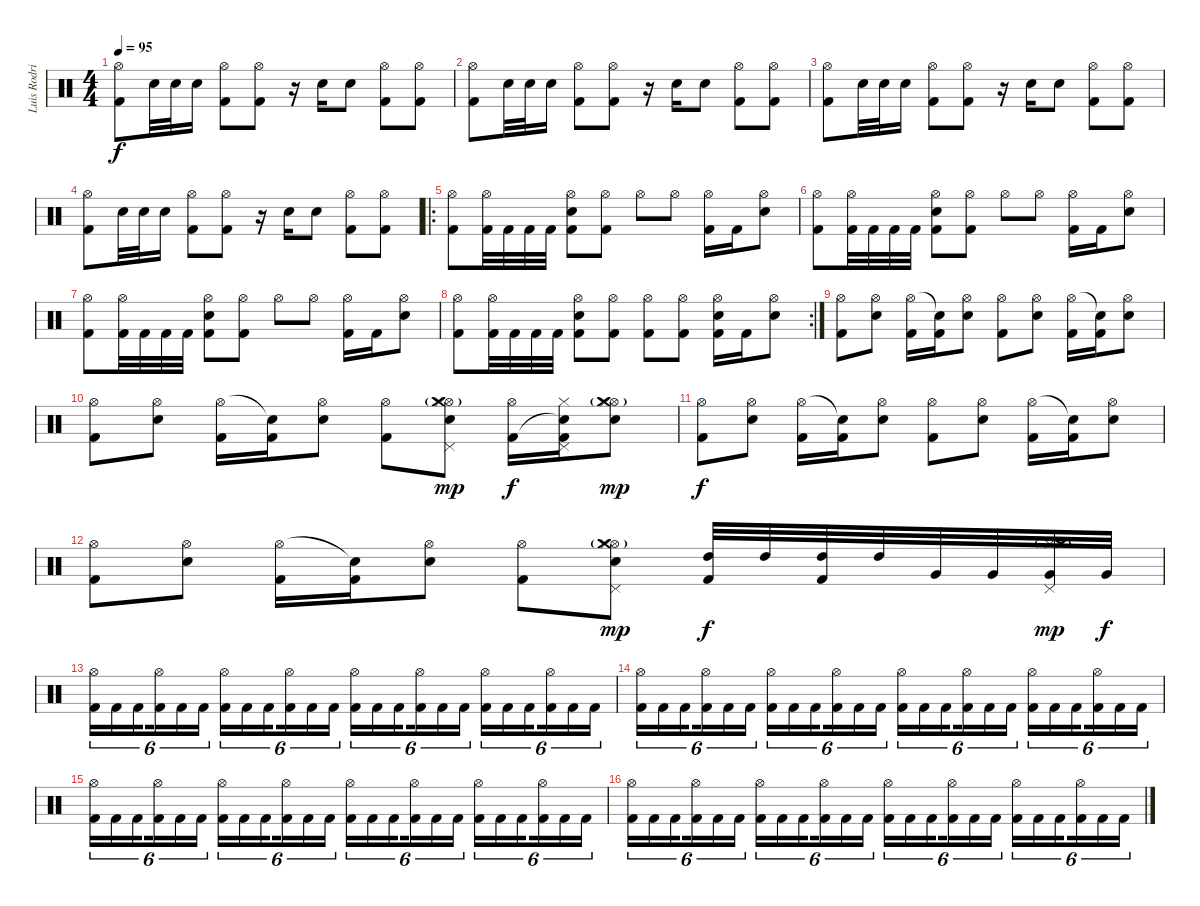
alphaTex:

\track ("Luis Rodriguez" "Luis Rodri") {instrument percussion}
\staff {score}
\articulation defaults
\ts (4 4)
\tempo 95
\clef neutral
\ks c
("Hi-Hat (open)" "Kick (hit) 2").8{dy f} "Snare (hit) 2".32 "Snare (hit) 2".32 "Snare (hit) 2".16 ("Hi-Hat (open)" "Kick (hit) 2").8 ("Hi-Hat (open)" "Kick (hit) 2").8 r.16 "Snare (hit) 2".16 "Snare (hit) 2".8 ("Hi-Hat (open)" "Kick (hit) 2").8 ("Hi-Hat (open)" "Kick (hit) 2").8 |
("Hi-Hat (open)" "Kick (hit) 2").8 "Snare (hit) 2".32 "Snare (hit) 2".32 "Snare (hit) 2".16 ("Hi-Hat (open)" "Kick (hit) 2").8 ("Hi-Hat (open)" "Kick (hit) 2").8 r.16 "Snare (hit) 2".16 "Snare (hit) 2".8 ("Hi-Hat (open)" "Kick (hit) 2").8 ("Hi-Hat (open)" "Kick (hit) 2").8 |
("Hi-Hat (open)" "Kick (hit) 2").8 "Snare (hit) 2".32 "Snare (hit) 2".32 "Snare (hit) 2".16 ("Hi-Hat (open)" "Kick (hit) 2").8 ("Hi-Hat (open)" "Kick (hit) 2").8 r.16 "Snare (hit) 2".16 "Snare (hit) 2".8 ("Hi-Hat (open)" "Kick (hit) 2").8 ("Hi-Hat (open)" "Kick (hit) 2").8 |
("Hi-Hat (open)" "Kick (hit) 2").8 "Snare (hit) 2".32 "Snare (hit) 2".32 "Snare (hit) 2".16 ("Hi-Hat (open)" "Kick (hit) 2").8 ("Hi-Hat (open)" "Kick (hit) 2").8 r.16 "Snare (hit) 2".16 "Snare (hit) 2".8 ("Hi-Hat (open)" "Kick (hit) 2").8 ("Hi-Hat (open)" "Kick (hit) 2").8 |
\ro
("Hi-Hat (open)" "Kick (hit) 2").8 ("Hi-Hat (open)" "Kick (hit) 2").32 "Kick (hit) 2".32 "Kick (hit) 2".32 "Kick (hit) 2".32 ("Hi-Hat (open)" "Snare (hit) 2" "Kick (hit) 2").8 ("Hi-Hat (open)" "Kick (hit) 2").8 "Hi-Hat (open)".8 "Hi-Hat (open)".8 ("Hi-Hat (open)" "Kick (hit) 2").16 "Kick (hit) 2".16 ("Hi-Hat (open)" "Snare (hit) 2").8 |
("Hi-Hat (open)" "Kick (hit) 2").8 ("Hi-Hat (open)" "Kick (hit) 2").32 "Kick (hit) 2".32 "Kick (hit) 2".32 "Kick (hit) 2".32 ("Hi-Hat (open)" "Snare (hit) 2" "Kick (hit) 2").8 ("Hi-Hat (open)" "Kick (hit) 2").8 "Hi-Hat (open)".8 "Hi-Hat (open)".8 ("Hi-Hat (open)" "Kick (hit) 2").16 "Kick (hit) 2".16 ("Hi-Hat (open)" "Snare (hit) 2").8 |
("Hi-Hat (open)" "Kick (hit) 2").8 ("Hi-Hat (open)" "Kick (hit) 2").32 "Kick (hit) 2".32 "Kick (hit) 2".32 "Kick (hit) 2".32 ("Hi-Hat (open)" "Snare (hit) 2" "Kick (hit) 2").8 ("Hi-Hat (open)" "Kick (hit) 2").8 "Hi-Hat (open)".8 "Hi-Hat (open)".8 ("Hi-Hat (open)" "Kick (hit) 2").16 "Kick (hit) 2".16 ("Hi-Hat (open)" "Snare (hit) 2").8 |
\rc 2
("Hi-Hat (open)" "Kick (hit) 2").8 ("Hi-Hat (open)" "Kick (hit) 2").32 "Kick (hit) 2".32 "Kick (hit) 2".32 "Kick (hit) 2".32 ("Hi-Hat (open)" "Snare (hit) 2" "Kick (hit) 2").8 ("Hi-Hat (open)" "Kick (hit) 2").8 ("Hi-Hat (open)" "Kick (hit) 2").8 ("Hi-Hat (open)" "Kick (hit) 2").8 ("Hi-Hat (open)" "Snare (hit) 2" "Kick (hit) 2").16 "Kick (hit) 2".16 ("Hi-Hat (open)" "Snare (hit) 2").8 |
("Hi-Hat (open)" "Kick (hit) 2").8 ("Hi-Hat (open)" "Snare (hit) 2").8 ("Hi-Hat (open)" "Kick (hit) 2").16 ("Snare (hit)"{t} "Kick (hit) 2").16 ("Hi-Hat (open)" "Snare (hit) 2").8 ("Hi-Hat (open)" "Kick (hit) 2").8 ("Hi-Hat (open)" "Snare (hit) 2").8 ("Hi-Hat (open)" "Kick (hit) 2").16 ("Snare (hit)"{t} "Kick (hit) 2").16 ("Hi-Hat (open)" "Snare (hit) 2").8 |
("Hi-Hat (open)" "Kick (hit) 2").8 ("Hi-Hat (open)" "Snare (hit) 2").8 ("Hi-Hat (open)" "Kick (hit) 2").16 ("Snare (hit)"{t} "Kick (hit) 2").16 ("Hi-Hat (open)" "Snare (hit) 2").8 ("Hi-Hat (open)" "Kick (hit) 2").8 ("Pedal Hi-Hat (hit)" "Hi-Hat (open)" "Hi-Hat (closed)" "Snare (hit) 2" "Crash medium (hit)"{g}).8{dy mp} ("Hi-Hat (open)" "Kick (hit) 2").16{dy f} ("Pedal Hi-Hat (hit)" "Snare (hit)"{t} "Hi-Hat (closed)" "Kick (hit) 2").16 ("Hi-Hat (open)" "Hi-Hat (closed)" "Snare (hit) 2" "Crash medium (hit)"{g}).8{dy mp} |
("Hi-Hat (open)" "Kick (hit) 2").8{dy f} ("Hi-Hat (open)" "Snare (hit) 2").8 ("Hi-Hat (open)" "Kick (hit) 2").16 ("Snare (hit)"{t} "Kick (hit) 2").16 ("Hi-Hat (open)" "Snare (hit) 2").8 ("Hi-Hat (open)" "Kick (hit) 2").8 ("Hi-Hat (open)" "Snare (hit) 2").8 ("Hi-Hat (open)" "Kick (hit) 2").16 ("Snare (hit)"{t} "Kick (hit) 2").16 ("Hi-Hat (open)" "Snare (hit) 2").8 |
("Hi-Hat (open)" "Kick (hit) 2").8 ("Hi-Hat (open)" "Snare (hit) 2").8 ("Hi-Hat (open)" "Kick (hit) 2").16 ("Snare (hit)"{t} "Kick (hit) 2").16 ("Hi-Hat (open)" "Snare (hit) 2").8 ("Hi-Hat (open)" "Kick (hit) 2").8 ("Pedal Hi-Hat (hit)" "Hi-Hat (open)" "Hi-Hat (closed)" "Snare (hit) 2" "Crash medium (hit)"{g}).8{dy mp} ("High Tom (hit)" "Kick (hit) 2").32{dy f} "High Tom (hit)".32 ("High Tom (hit)" "Kick (hit) 2").32 "High Tom (hit)".32 "Very Low Tom (hit)".32 "Very Low Tom (hit)".32 ("Pedal Hi-Hat (hit)" "Hi-Hat (closed)" "Very Low Tom (hit)" "Crash medium (hit)"{g}).32{dy mp} "Very Low Tom (hit)".32{dy f} |
("Hi-Hat (open)" "Kick (hit) 2").16{tu (6 4)} "Kick (hit) 2".16{tu (6 4)} "Kick (hit) 2".16{tu (6 4) beam splitsecondary} ("Hi-Hat (open)" "Kick (hit) 2").16{tu (6 4)} "Kick (hit) 2".16{tu (6 4)} "Kick (hit) 2".16{tu (6 4)} ("Hi-Hat (open)" "Kick (hit) 2").16{tu (6 4)} "Kick (hit) 2".16{tu (6 4)} "Kick (hit) 2".16{tu (6 4) beam splitsecondary} ("Hi-Hat (open)" "Kick (hit) 2").16{tu (6 4)} "Kick (hit) 2".16{tu (6 4)} "Kick (hit) 2".16{tu (6 4)} ("Hi-Hat (open)" "Kick (hit) 2").16{tu (6 4)} "Kick (hit) 2".16{tu (6 4)} "Kick (hit) 2".16{tu (6 4) beam splitsecondary} ("Hi-Hat (open)" "Kick (hit) 2").16{tu (6 4)} "Kick (hit) 2".16{tu (6 4)} "Kick (hit) 2".16{tu (6 4)} ("Hi-Hat (open)" "Kick (hit) 2").16{tu (6 4)} "Kick (hit) 2".16{tu (6 4)} "Kick (hit) 2".16{tu (6 4) beam splitsecondary} ("Hi-Hat (open)" "Kick (hit) 2").16{tu (6 4)} "Kick (hit) 2".16{tu (6 4)} "Kick (hit) 2".16{tu (6 4)} |
("Hi-Hat (open)" "Kick (hit) 2").16{tu (6 4)} "Kick (hit) 2".16{tu (6 4)} "Kick (hit) 2".16{tu (6 4) beam splitsecondary} ("Hi-Hat (open)" "Kick (hit) 2").16{tu (6 4)} "Kick (hit) 2".16{tu (6 4)} "Kick (hit) 2".16{tu (6 4)} ("Hi-Hat (open)" "Kick (hit) 2").16{tu (6 4)} "Kick (hit) 2".16{tu (6 4)} "Kick (hit) 2".16{tu (6 4) beam splitsecondary} ("Hi-Hat (open)" "Kick (hit) 2").16{tu (6 4)} "Kick (hit) 2".16{tu (6 4)} "Kick (hit) 2".16{tu (6 4)} ("Hi-Hat (open)" "Kick (hit) 2").16{tu (6 4)} "Kick (hit) 2".16{tu (6 4)} "Kick (hit) 2".16{tu (6 4) beam splitsecondary} ("Hi-Hat (open)" "Kick (hit) 2").16{tu (6 4)} "Kick (hit) 2".16{tu (6 4)} "Kick (hit) 2".16{tu (6 4)} ("Hi-Hat (open)" "Kick (hit) 2").16{tu (6 4)} "Kick (hit) 2".16{tu (6 4)} "Kick (hit) 2".16{tu (6 4) beam splitsecondary} ("Hi-Hat (open)" "Kick (hit) 2").16{tu (6 4)} "Kick (hit) 2".16{tu (6 4)} "Kick (hit) 2".16{tu (6 4)} |
("Hi-Hat (open)" "Kick (hit) 2").16{tu (6 4)} "Kick (hit) 2".16{tu (6 4)} "Kick (hit) 2".16{tu (6 4) beam splitsecondary} ("Hi-Hat (open)" "Kick (hit) 2").16{tu (6 4)} "Kick (hit) 2".16{tu (6 4)} "Kick (hit) 2".16{tu (6 4)} ("Hi-Hat (open)" "Kick (hit) 2").16{tu (6 4)} "Kick (hit) 2".16{tu (6 4)} "Kick (hit) 2".16{tu (6 4) beam splitsecondary} ("Hi-Hat (open)" "Kick (hit) 2").16{tu (6 4)} "Kick (hit) 2".16{tu (6 4)} "Kick (hit) 2".16{tu (6 4)} ("Hi-Hat (open)" "Kick (hit) 2").16{tu (6 4)} "Kick (hit) 2".16{tu (6 4)} "Kick (hit) 2".16{tu (6 4) beam splitsecondary} ("Hi-Hat (open)" "Kick (hit) 2").16{tu (6 4)} "Kick (hit) 2".16{tu (6 4)} "Kick (hit) 2".16{tu (6 4)} ("Hi-Hat (open)" "Kick (hit) 2").16{tu (6 4)} "Kick (hit) 2".16{tu (6 4)} "Kick (hit) 2".16{tu (6 4) beam splitsecondary} ("Hi-Hat (open)" "Kick (hit) 2").16{tu (6 4)} "Kick (hit) 2".16{tu (6 4)} "Kick (hit) 2".16{tu (6 4)} |
("Hi-Hat (open)" "Kick (hit) 2").16{tu (6 4)} "Kick (hit) 2".16{tu (6 4)} "Kick (hit) 2".16{tu (6 4) beam splitsecondary} ("Hi-Hat (open)" "Kick (hit) 2").16{tu (6 4)} "Kick (hit) 2".16{tu (6 4)} "Kick (hit) 2".16{tu (6 4)} ("Hi-Hat (open)" "Kick (hit) 2").16{tu (6 4)} "Kick (hit) 2".16{tu (6 4)} "Kick (hit) 2".16{tu (6 4) beam splitsecondary} ("Hi-Hat (open)" "Kick (hit) 2").16{tu (6 4)} "Kick (hit) 2".16{tu (6 4)} "Kick (hit) 2".16{tu (6 4)} ("Hi-Hat (open)" "Kick (hit) 2").16{tu (6 4)} "Kick (hit) 2".16{tu (6 4)} "Kick (hit) 2".16{tu (6 4) beam splitsecondary} ("Hi-Hat (open)" "Kick (hit) 2").16{tu (6 4)} "Kick (hit) 2".16{tu (6 4)} "Kick (hit) 2".16{tu (6 4)} ("Hi-Hat (open)" "Kick (hit) 2").16{tu (6 4)} "Kick (hit) 2".16{tu (6 4)} "Kick (hit) 2".16{tu (6 4) beam splitsecondary} ("Hi-Hat (open)" "Kick (hit) 2").16{tu (6 4)} "Kick (hit) 2".16{tu (6 4)} "Kick (hit) 2".16{tu (6 4)}
